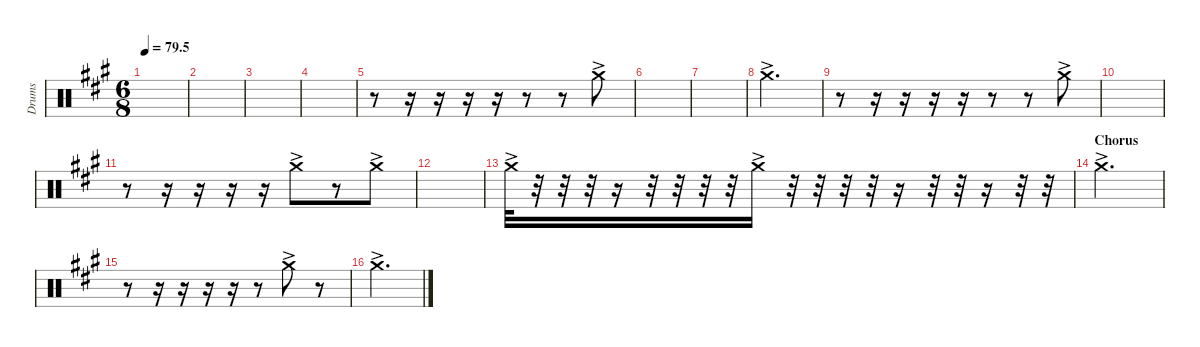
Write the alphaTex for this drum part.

\defaultSystemsLayout 4
\hideDynamics
\bracketExtendMode nobrackets
\otherSystemsTrackNameOrientation horizontal
\track ("Right crash" "Drums") {instrument percussion}
\staff {score}
\articulation defaults
\ts (6 8)
\tempo
79.5
\accidentals auto
\clef neutral
\ottava regular
\simile none
\scale
0.333333
\ks a
|
\scale
0.333333 |
\scale
0.333333 |
\scale
0.333333 |
\scale
0.333333 r.8 r.16 r.16 r.16 r.16 r.8 r.8 "Crash medium (hit)"{ac acc forcenatural}.8 |
\scale
0.333333 |
\scale
0.333333 |
\scale
0.333333 "Crash medium (hit)"{ac acc forcenatural}.2{d} |
\scale
0.333333 r.8 r.16 r.16 r.16 r.16 r.8 r.8 "Crash medium (hit)"{ac acc forcenatural}.8 |
\scale
0.333333 |
\scale
0.333333 r.8 r.16 r.16 r.16 r.16 "Crash medium (hit)"{ac acc forcenatural}.8 r.8 "Crash medium (hit)"{ac acc forcenatural}.8 |
\scale
0.333333 |
\scale
0.333333 "Crash medium (hit)"{ac acc forcenatural}.32 r.32 r.32 r.32 r.16 r.32 r.32 r.32 r.32 "Crash medium (hit)"{ac acc forcenatural}.16 r.32 r.32 r.32 r.32 r.16 r.32 r.32 r.16 r.32 r.32 |
\section ("" "Chorus")
\scale
0.333333 "Crash medium (hit)"{ac acc forcenatural}.2{d} |
\scale
0.333333 r.8 r.16 r.16 r.16 r.16 r.8 "Crash medium (hit)"{ac acc forcenatural}.8 r.8 |
\scale
0.333333 "Crash medium (hit)"{ac acc forcenatural}.2{d}
